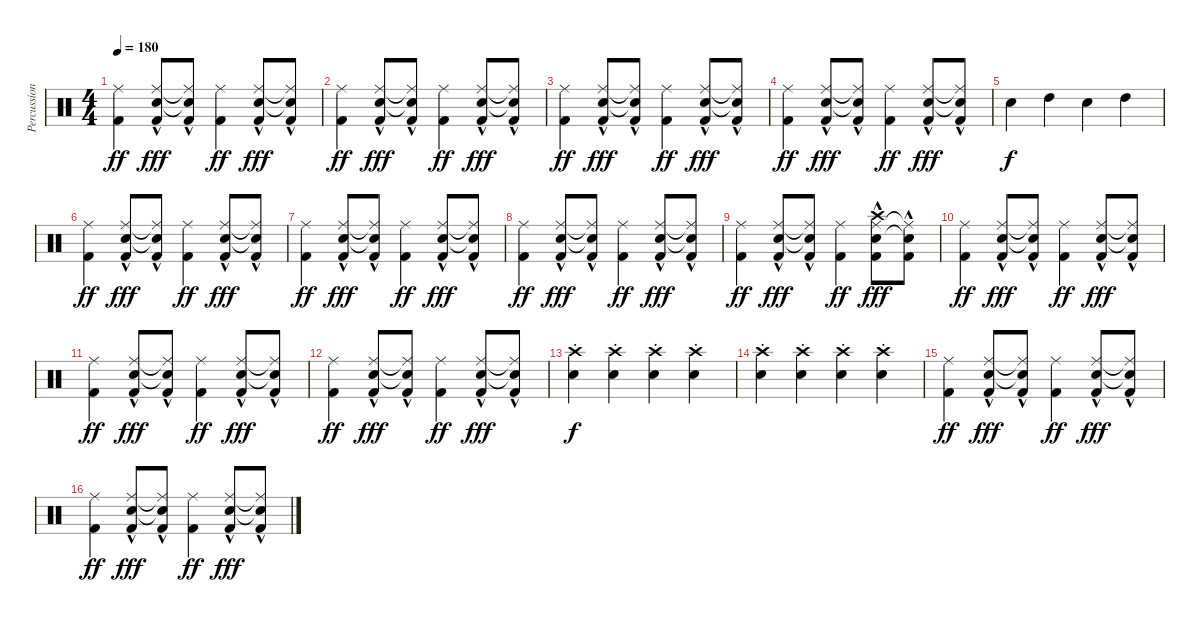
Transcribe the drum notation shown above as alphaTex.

\track ("Percussion" "Percussion") {instrument percussion}
\staff {score}
\articulation defaults
\ts (4 4)
\tempo 180
\clef neutral
\ks c
("Kick (hit) 2" "Ride (middle)").4{dy ff} ("Electric Snare (hit)" "Ride (middle)" "Kick (hit) 2"{hac}).8{dy fff} ("Electric Snare (hit)"{t} "Ride (middle)"{t} "Kick (hit) 2"{hac}).8 ("Kick (hit) 2" "Ride (middle)").4{dy ff} ("Electric Snare (hit)" "Ride (middle)" "Kick (hit) 2"{hac}).8{dy fff} ("Electric Snare (hit)"{t} "Ride (middle)"{t} "Kick (hit) 2"{hac}).8 |
("Kick (hit) 2" "Ride (middle)").4{dy ff} ("Electric Snare (hit)" "Ride (middle)" "Kick (hit) 2"{hac}).8{dy fff} ("Electric Snare (hit)"{t} "Ride (middle)"{t} "Kick (hit) 2"{hac}).8 ("Kick (hit) 2" "Ride (middle)").4{dy ff} ("Electric Snare (hit)" "Ride (middle)" "Kick (hit) 2"{hac}).8{dy fff} ("Electric Snare (hit)"{t} "Ride (middle)"{t} "Kick (hit) 2"{hac}).8 |
("Kick (hit) 2" "Ride (middle)").4{dy ff} ("Electric Snare (hit)" "Ride (middle)" "Kick (hit) 2"{hac}).8{dy fff} ("Electric Snare (hit)"{t} "Ride (middle)"{t} "Kick (hit) 2"{hac}).8 ("Kick (hit) 2" "Ride (middle)").4{dy ff} ("Electric Snare (hit)" "Ride (middle)" "Kick (hit) 2"{hac}).8{dy fff} ("Electric Snare (hit)"{t} "Ride (middle)"{t} "Kick (hit) 2"{hac}).8 |
("Kick (hit) 2" "Ride (middle)").4{dy ff} ("Electric Snare (hit)" "Ride (middle)" "Kick (hit) 2"{hac}).8{dy fff} ("Electric Snare (hit)"{t} "Ride (middle)"{t} "Kick (hit) 2"{hac}).8 ("Kick (hit) 2" "Ride (middle)").4{dy ff} ("Electric Snare (hit)" "Ride (middle)" "Kick (hit) 2"{hac}).8{dy fff} ("Electric Snare (hit)"{t} "Ride (middle)"{t} "Kick (hit) 2"{hac}).8 |
"Electric Snare (hit)".4{dy f} "High Tom (hit)".4 "Electric Snare (hit)".4 "High Tom (hit)".4 |
("Kick (hit) 2" "Ride (middle)").4{dy ff} ("Electric Snare (hit)" "Ride (middle)" "Kick (hit) 2"{hac}).8{dy fff} ("Electric Snare (hit)"{t} "Ride (middle)"{t} "Kick (hit) 2"{hac}).8 ("Kick (hit) 2" "Ride (middle)").4{dy ff} ("Electric Snare (hit)" "Ride (middle)" "Kick (hit) 2"{hac}).8{dy fff} ("Electric Snare (hit)"{t} "Ride (middle)"{t} "Kick (hit) 2"{hac}).8 |
("Kick (hit) 2" "Ride (middle)").4{dy ff} ("Electric Snare (hit)" "Ride (middle)" "Kick (hit) 2"{hac}).8{dy fff} ("Electric Snare (hit)"{t} "Ride (middle)"{t} "Kick (hit) 2"{hac}).8 ("Kick (hit) 2" "Ride (middle)").4{dy ff} ("Electric Snare (hit)" "Ride (middle)" "Kick (hit) 2"{hac}).8{dy fff} ("Electric Snare (hit)"{t} "Ride (middle)"{t} "Kick (hit) 2"{hac}).8 |
("Kick (hit) 2" "Ride (middle)").4{dy ff} ("Electric Snare (hit)" "Ride (middle)" "Kick (hit) 2"{hac}).8{dy fff} ("Electric Snare (hit)"{t} "Ride (middle)"{t} "Kick (hit) 2"{hac}).8 ("Kick (hit) 2" "Ride (middle)").4{dy ff} ("Electric Snare (hit)" "Ride (middle)" "Kick (hit) 2"{hac}).8{dy fff} ("Electric Snare (hit)"{t} "Ride (middle)"{t} "Kick (hit) 2"{hac}).8 |
("Kick (hit) 2" "Ride (middle)").4{dy ff} ("Electric Snare (hit)" "Ride (middle)" "Kick (hit) 2"{hac}).8{dy fff} ("Electric Snare (hit)"{t} "Ride (middle)"{t} "Kick (hit) 2"{hac}).8 ("Kick (hit) 2" "Ride (middle)").4{dy ff} ("Electric Snare (hit)" "Ride (middle)" "Kick (hit) 2"{hac} "Crash high (hit)").8{dy fff} ("Electric Snare (hit)"{t} "Ride (middle)"{t} "Kick (hit) 2"{hac}).8 |
("Kick (hit) 2" "Ride (middle)").4{dy ff} ("Electric Snare (hit)" "Ride (middle)" "Kick (hit) 2"{hac}).8{dy fff} ("Electric Snare (hit)"{t} "Ride (middle)"{t} "Kick (hit) 2"{hac}).8 ("Kick (hit) 2" "Ride (middle)").4{dy ff} ("Electric Snare (hit)" "Ride (middle)" "Kick (hit) 2"{hac}).8{dy fff} ("Electric Snare (hit)"{t} "Ride (middle)"{t} "Kick (hit) 2"{hac}).8 |
("Kick (hit) 2" "Ride (middle)").4{dy ff} ("Electric Snare (hit)" "Ride (middle)" "Kick (hit) 2"{hac}).8{dy fff} ("Electric Snare (hit)"{t} "Ride (middle)"{t} "Kick (hit) 2"{hac}).8 ("Kick (hit) 2" "Ride (middle)").4{dy ff} ("Electric Snare (hit)" "Ride (middle)" "Kick (hit) 2"{hac}).8{dy fff} ("Electric Snare (hit)"{t} "Ride (middle)"{t} "Kick (hit) 2"{hac}).8 |
("Kick (hit) 2" "Ride (middle)").4{dy ff} ("Electric Snare (hit)" "Ride (middle)" "Kick (hit) 2"{hac}).8{dy fff} ("Electric Snare (hit)"{t} "Ride (middle)"{t} "Kick (hit) 2"{hac}).8 ("Kick (hit) 2" "Ride (middle)").4{dy ff} ("Electric Snare (hit)" "Ride (middle)" "Kick (hit) 2"{hac}).8{dy fff} ("Electric Snare (hit)"{t} "Ride (middle)"{t} "Kick (hit) 2"{hac}).8 |
("Crash high (hit)"{st} "Electric Snare (hit)"{st}).4{dy f} ("Crash high (hit)"{st} "Electric Snare (hit)"{st}).4 ("Crash high (hit)"{st} "Electric Snare (hit)"{st}).4 ("Crash high (hit)"{st} "Electric Snare (hit)"{st}).4 |
("Crash high (hit)"{st} "Electric Snare (hit)"{st}).4 ("Crash high (hit)"{st} "Electric Snare (hit)"{st}).4 ("Crash high (hit)"{st} "Electric Snare (hit)"{st}).4 ("Crash high (hit)"{st} "Electric Snare (hit)"{st}).4 |
("Kick (hit) 2" "Ride (middle)").4{dy ff} ("Electric Snare (hit)" "Ride (middle)" "Kick (hit) 2"{hac}).8{dy fff} ("Electric Snare (hit)"{t} "Ride (middle)"{t} "Kick (hit) 2"{hac}).8 ("Kick (hit) 2" "Ride (middle)").4{dy ff} ("Electric Snare (hit)" "Ride (middle)" "Kick (hit) 2"{hac}).8{dy fff} ("Electric Snare (hit)"{t} "Ride (middle)"{t} "Kick (hit) 2"{hac}).8 |
("Kick (hit) 2" "Ride (middle)").4{dy ff} ("Electric Snare (hit)" "Ride (middle)" "Kick (hit) 2"{hac}).8{dy fff} ("Electric Snare (hit)"{t} "Ride (middle)"{t} "Kick (hit) 2"{hac}).8 ("Kick (hit) 2" "Ride (middle)").4{dy ff} ("Electric Snare (hit)" "Ride (middle)" "Kick (hit) 2"{hac}).8{dy fff} ("Electric Snare (hit)"{t} "Ride (middle)"{t} "Kick (hit) 2"{hac}).8
